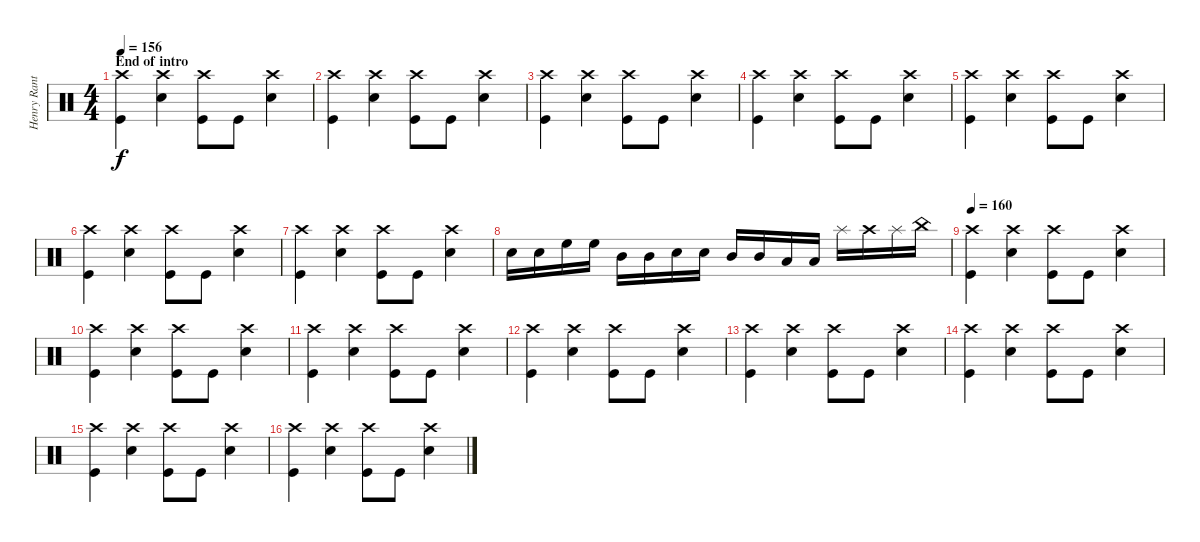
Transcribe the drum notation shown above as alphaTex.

\track ("Henry Ranta" "Henry Rant") {instrument percussion}
\staff {score}
\articulation defaults
\ts (4 4)
\section ("" "End of intro")
\tempo 156
\clef neutral
\ks c
("Crash high (hit)" "Kick (hit)").4{dy f} ("Crash high (hit)" "Snare (hit) 2").4 ("Crash high (hit)" "Kick (hit)").8 "Kick (hit)".8 ("Crash high (hit)" "Snare (hit) 2").4 |
("Crash high (hit)" "Kick (hit)").4 ("Crash high (hit)" "Snare (hit) 2").4 ("Crash high (hit)" "Kick (hit)").8 "Kick (hit)".8 ("Crash high (hit)" "Snare (hit) 2").4 |
("Crash high (hit)" "Kick (hit)").4 ("Crash high (hit)" "Snare (hit) 2").4 ("Crash high (hit)" "Kick (hit)").8 "Kick (hit)".8 ("Crash high (hit)" "Snare (hit) 2").4 |
("Crash high (hit)" "Kick (hit)").4 ("Crash high (hit)" "Snare (hit) 2").4 ("Crash high (hit)" "Kick (hit)").8 "Kick (hit)".8 ("Crash high (hit)" "Snare (hit) 2").4 |
("Crash high (hit)" "Kick (hit)").4 ("Crash high (hit)" "Snare (hit) 2").4 ("Crash high (hit)" "Kick (hit)").8 "Kick (hit)".8 ("Crash high (hit)" "Snare (hit) 2").4 |
("Crash high (hit)" "Kick (hit)").4 ("Crash high (hit)" "Snare (hit) 2").4 ("Crash high (hit)" "Kick (hit)").8 "Kick (hit)".8 ("Crash high (hit)" "Snare (hit) 2").4 |
("Crash high (hit)" "Kick (hit)").4 ("Crash high (hit)" "Snare (hit) 2").4 ("Crash high (hit)" "Kick (hit)").8 "Kick (hit)".8 ("Crash high (hit)" "Snare (hit) 2").4 |
"Snare (hit) 2".16 "Snare (hit) 2".16 "High Floor Tom (hit)".16 "High Floor Tom (hit)".16 "Mid Tom (hit)".16 "Mid Tom (hit)".16 "Snare (hit) 2".16 "Snare (hit) 2".16 "Mid Tom (hit)".16 "Mid Tom (hit)".16 "Low Tom (hit)".16 "Low Tom (hit)".16 "Splash (hit)".16 "Crash high (hit)".16 "Splash (hit)".16 "China (hit)".16 |
\tempo 160
("Crash high (hit)" "Kick (hit)").4 ("Crash high (hit)" "Snare (hit) 2").4 ("Crash high (hit)" "Kick (hit)").8 "Kick (hit)".8 ("Crash high (hit)" "Snare (hit) 2").4 |
("Crash high (hit)" "Kick (hit)").4 ("Crash high (hit)" "Snare (hit) 2").4 ("Crash high (hit)" "Kick (hit)").8 "Kick (hit)".8 ("Crash high (hit)" "Snare (hit) 2").4 |
("Crash high (hit)" "Kick (hit)").4 ("Crash high (hit)" "Snare (hit) 2").4 ("Crash high (hit)" "Kick (hit)").8 "Kick (hit)".8 ("Crash high (hit)" "Snare (hit) 2").4 |
("Crash high (hit)" "Kick (hit)").4 ("Crash high (hit)" "Snare (hit) 2").4 ("Crash high (hit)" "Kick (hit)").8 "Kick (hit)".8 ("Crash high (hit)" "Snare (hit) 2").4 |
("Crash high (hit)" "Kick (hit)").4 ("Crash high (hit)" "Snare (hit) 2").4 ("Crash high (hit)" "Kick (hit)").8 "Kick (hit)".8 ("Crash high (hit)" "Snare (hit) 2").4 |
("Crash high (hit)" "Kick (hit)").4 ("Crash high (hit)" "Snare (hit) 2").4 ("Crash high (hit)" "Kick (hit)").8 "Kick (hit)".8 ("Crash high (hit)" "Snare (hit) 2").4 |
("Crash high (hit)" "Kick (hit)").4 ("Crash high (hit)" "Snare (hit) 2").4 ("Crash high (hit)" "Kick (hit)").8 "Kick (hit)".8 ("Crash high (hit)" "Snare (hit) 2").4 |
("Crash high (hit)" "Kick (hit)").4 ("Crash high (hit)" "Snare (hit) 2").4 ("Crash high (hit)" "Kick (hit)").8 "Kick (hit)".8 ("Crash high (hit)" "Snare (hit) 2").4
